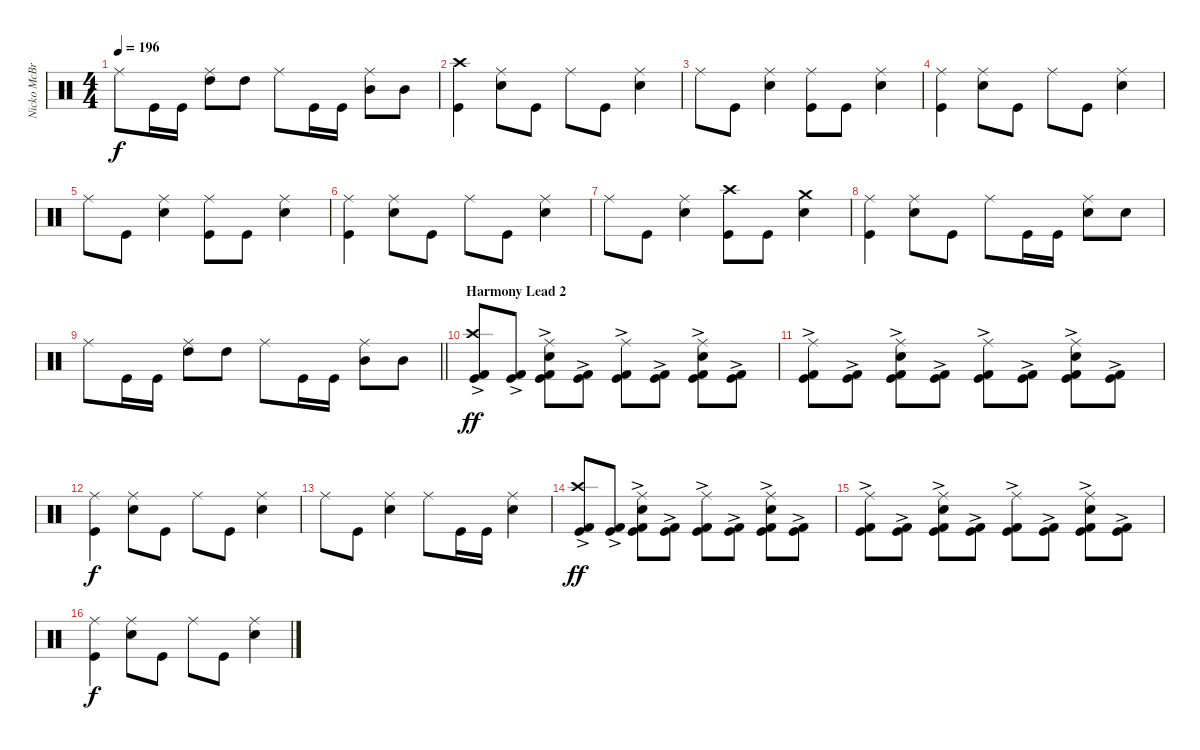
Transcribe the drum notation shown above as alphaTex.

\track ("Nicko McBrain" "Nicko McBr") {instrument percussion}
\staff {score}
\articulation defaults
\ts (4 4)
\tempo 196
\clef neutral
\ks c "Ride (middle)".8{dy f} "Kick (hit)".16 "Kick (hit)".16
("Ride (middle)" "High Tom (hit)").8 "High Tom (hit)".8 "Ride (middle)".8 "Kick (hit)".16 "Kick (hit)".16 ("Ride (middle)" "Mid Tom (hit)").8 "Mid Tom (hit)".8 |
("Crash high (hit)" "Kick (hit)").4 ("Ride (middle)" "Electric Snare (hit)").8 "Kick (hit)".8 "Ride (middle)".8 "Kick (hit)".8 ("Ride (middle)" "Electric Snare (hit)").4 |
"Ride (middle)".8 "Kick (hit)".8 ("Ride (middle)" "Electric Snare (hit)").4 ("Ride (middle)" "Kick (hit)").8 "Kick (hit)".8 ("Ride (middle)" "Electric Snare (hit)").4 |
("Ride (middle)" "Kick (hit)").4 ("Ride (middle)" "Electric Snare (hit)").8 "Kick (hit)".8 "Ride (middle)".8 "Kick (hit)".8 ("Ride (middle)" "Electric Snare (hit)").4 |
"Ride (middle)".8 "Kick (hit)".8 ("Ride (middle)" "Electric Snare (hit)").4 ("Ride (middle)" "Kick (hit)").8 "Kick (hit)".8 ("Ride (middle)" "Electric Snare (hit)").4 |
("Ride (middle)" "Kick (hit)").4 ("Ride (middle)" "Electric Snare (hit)").8 "Kick (hit)".8 "Ride (middle)".8 "Kick (hit)".8 ("Ride (middle)" "Electric Snare (hit)").4 |
"Ride (middle)".8 "Kick (hit)".8 ("Ride (middle)" "Electric Snare (hit)").4 ("Crash high (hit)" "Kick (hit)").8 "Kick (hit)".8 ("Crash medium (hit)" "Electric Snare (hit)").4 |
("Ride (middle)" "Kick (hit)").4 ("Ride (middle)" "Electric Snare (hit)").8 "Kick (hit)".8 "Ride (middle)".8 "Kick (hit)".16 "Kick (hit)".16 ("Ride (middle)" "Electric Snare (hit)").8 "Electric Snare (hit)".8 |
\barLineRight lightlight "Ride (middle)".8 "Kick (hit)".16 "Kick (hit)".16
("Ride (middle)" "High Tom (hit)").8 "High Tom (hit)".8 "Ride (middle)".8 "Kick (hit)".16 "Kick (hit)".16 ("Ride (middle)" "Mid Tom (hit)").8 "Mid Tom (hit)".8 |
\section ("" "Harmony Lead 2")
("Crash high (hit)" "Kick (hit) 2" "Kick (hit)"{ac}).8{dy ff} ("Kick (hit) 2" "Kick (hit)"{ac}).8 ("Ride (middle)" "Electric Snare (hit)" "Kick (hit) 2" "Kick (hit)"{ac}).8 ("Kick (hit) 2" "Kick (hit)"{ac}).8 ("Ride (middle)" "Kick (hit) 2" "Kick (hit)"{ac}).8 ("Kick (hit) 2" "Kick (hit)"{ac}).8 ("Ride (middle)" "Electric Snare (hit)" "Kick (hit) 2" "Kick (hit)"{ac}).8 ("Kick (hit) 2" "Kick (hit)"{ac}).8 |
("Ride (middle)" "Kick (hit) 2" "Kick (hit)"{ac}).8 ("Kick (hit) 2" "Kick (hit)"{ac}).8 ("Ride (middle)" "Electric Snare (hit)" "Kick (hit) 2" "Kick (hit)"{ac}).8 ("Kick (hit) 2" "Kick (hit)"{ac}).8 ("Ride (middle)" "Kick (hit) 2" "Kick (hit)"{ac}).8 ("Kick (hit) 2" "Kick (hit)"{ac}).8 ("Ride (middle)" "Electric Snare (hit)" "Kick (hit) 2" "Kick (hit)"{ac}).8 ("Kick (hit) 2" "Kick (hit)"{ac}).8 |
("Ride (middle)" "Kick (hit)").4{dy f} ("Ride (middle)" "Electric Snare (hit)").8 "Kick (hit)".8 "Ride (middle)".8 "Kick (hit)".8 ("Ride (middle)" "Electric Snare (hit)").4 |
"Ride (middle)".8 "Kick (hit)".8 ("Ride (middle)" "Electric Snare (hit)").4 "Ride (middle)".8 "Kick (hit)".16 "Kick (hit)".16 ("Ride (middle)" "Electric Snare (hit)").4 |
("Crash high (hit)" "Kick (hit) 2" "Kick (hit)"{ac}).8{dy ff} ("Kick (hit) 2" "Kick (hit)"{ac}).8 ("Ride (middle)" "Electric Snare (hit)" "Kick (hit) 2" "Kick (hit)"{ac}).8 ("Kick (hit) 2" "Kick (hit)"{ac}).8 ("Ride (middle)" "Kick (hit) 2" "Kick (hit)"{ac}).8 ("Kick (hit) 2" "Kick (hit)"{ac}).8 ("Ride (middle)" "Electric Snare (hit)" "Kick (hit) 2" "Kick (hit)"{ac}).8 ("Kick (hit) 2" "Kick (hit)"{ac}).8 |
("Ride (middle)" "Kick (hit) 2" "Kick (hit)"{ac}).8 ("Kick (hit) 2" "Kick (hit)"{ac}).8 ("Ride (middle)" "Electric Snare (hit)" "Kick (hit) 2" "Kick (hit)"{ac}).8 ("Kick (hit) 2" "Kick (hit)"{ac}).8 ("Ride (middle)" "Kick (hit) 2" "Kick (hit)"{ac}).8 ("Kick (hit) 2" "Kick (hit)"{ac}).8 ("Ride (middle)" "Electric Snare (hit)" "Kick (hit) 2" "Kick (hit)"{ac}).8 ("Kick (hit) 2" "Kick (hit)"{ac}).8 |
("Ride (middle)" "Kick (hit)").4{dy f} ("Ride (middle)" "Electric Snare (hit)").8 "Kick (hit)".8 "Ride (middle)".8 "Kick (hit)".8 ("Ride (middle)" "Electric Snare (hit)").4
